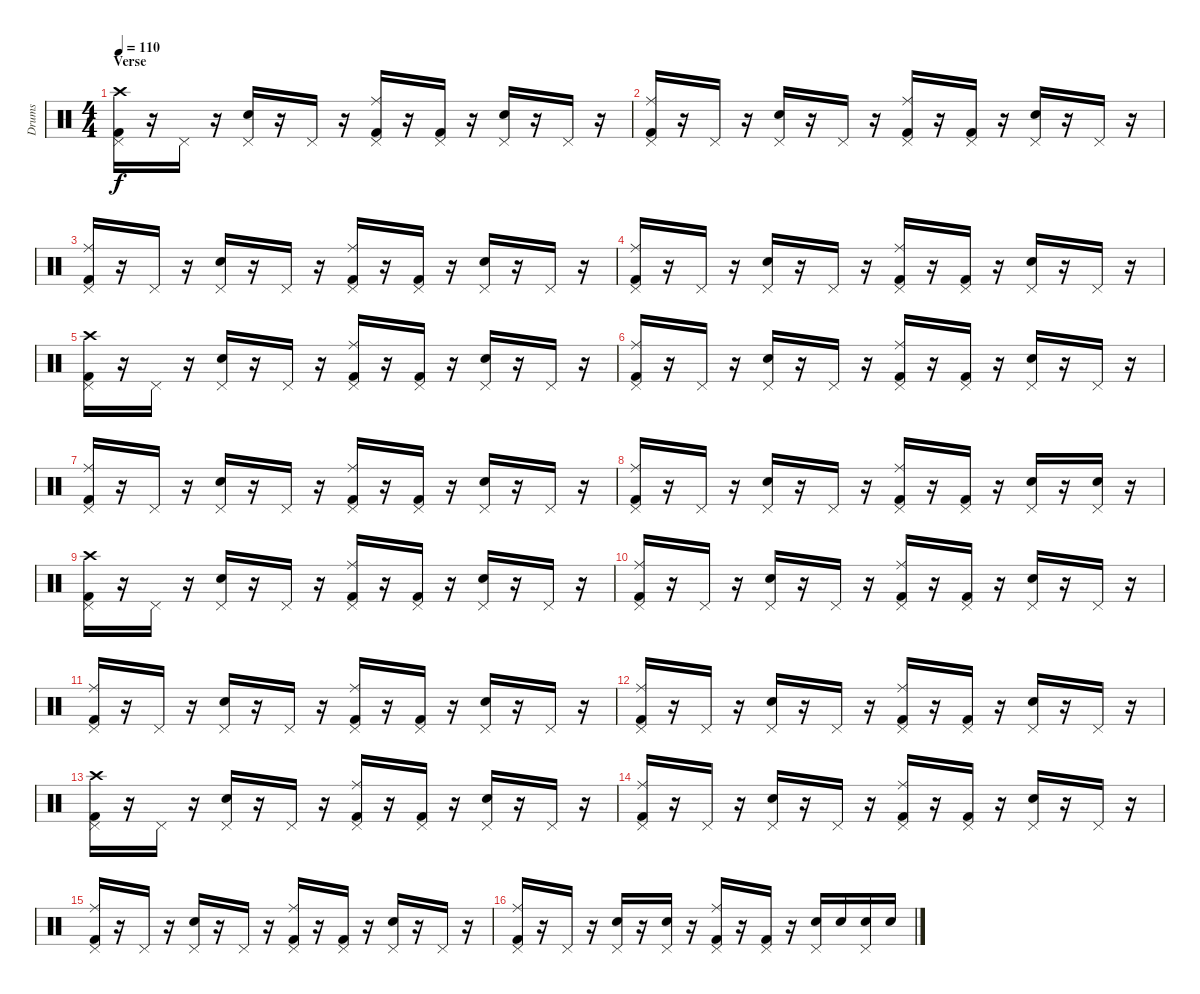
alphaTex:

\track ("Drums" "Drums") {instrument percussion}
\staff {score}
\articulation defaults
\ts (4 4)
\section ("" "Verse")
\tempo 110
\clef neutral
\ks c
("Crash high (hit)" "Kick (hit) 2" "Pedal Hi-Hat (hit)").16{dy f} r.16 "Pedal Hi-Hat (hit)".16 r.16 ("Snare (hit) 2" "Pedal Hi-Hat (hit)").16 r.16 "Pedal Hi-Hat (hit)".16 r.16 ("Ride (middle)" "Kick (hit) 2" "Pedal Hi-Hat (hit)").16 r.16 ("Kick (hit) 2" "Pedal Hi-Hat (hit)").16 r.16 ("Snare (hit) 2" "Pedal Hi-Hat (hit)").16 r.16 "Pedal Hi-Hat (hit)".16 r.16 |
("Ride (middle)" "Kick (hit) 2" "Pedal Hi-Hat (hit)").16 r.16 "Pedal Hi-Hat (hit)".16 r.16 ("Snare (hit) 2" "Pedal Hi-Hat (hit)").16 r.16 "Pedal Hi-Hat (hit)".16 r.16 ("Ride (middle)" "Kick (hit) 2" "Pedal Hi-Hat (hit)").16 r.16 ("Kick (hit) 2" "Pedal Hi-Hat (hit)").16 r.16 ("Snare (hit) 2" "Pedal Hi-Hat (hit)").16 r.16 "Pedal Hi-Hat (hit)".16 r.16 |
("Ride (middle)" "Kick (hit) 2" "Pedal Hi-Hat (hit)").16 r.16 "Pedal Hi-Hat (hit)".16 r.16 ("Snare (hit) 2" "Pedal Hi-Hat (hit)").16 r.16 "Pedal Hi-Hat (hit)".16 r.16 ("Ride (middle)" "Kick (hit) 2" "Pedal Hi-Hat (hit)").16 r.16 ("Kick (hit) 2" "Pedal Hi-Hat (hit)").16 r.16 ("Snare (hit) 2" "Pedal Hi-Hat (hit)").16 r.16 "Pedal Hi-Hat (hit)".16 r.16 |
("Ride (middle)" "Kick (hit) 2" "Pedal Hi-Hat (hit)").16 r.16 "Pedal Hi-Hat (hit)".16 r.16 ("Snare (hit) 2" "Pedal Hi-Hat (hit)").16 r.16 "Pedal Hi-Hat (hit)".16 r.16 ("Ride (middle)" "Kick (hit) 2" "Pedal Hi-Hat (hit)").16 r.16 ("Kick (hit) 2" "Pedal Hi-Hat (hit)").16 r.16 ("Snare (hit) 2" "Pedal Hi-Hat (hit)").16 r.16 "Pedal Hi-Hat (hit)".16 r.16 |
("Crash high (hit)" "Kick (hit) 2" "Pedal Hi-Hat (hit)").16 r.16 "Pedal Hi-Hat (hit)".16 r.16 ("Snare (hit) 2" "Pedal Hi-Hat (hit)").16 r.16 "Pedal Hi-Hat (hit)".16 r.16 ("Ride (middle)" "Kick (hit) 2" "Pedal Hi-Hat (hit)").16 r.16 ("Kick (hit) 2" "Pedal Hi-Hat (hit)").16 r.16 ("Snare (hit) 2" "Pedal Hi-Hat (hit)").16 r.16 "Pedal Hi-Hat (hit)".16 r.16 |
("Ride (middle)" "Kick (hit) 2" "Pedal Hi-Hat (hit)").16 r.16 "Pedal Hi-Hat (hit)".16 r.16 ("Snare (hit) 2" "Pedal Hi-Hat (hit)").16 r.16 "Pedal Hi-Hat (hit)".16 r.16 ("Ride (middle)" "Kick (hit) 2" "Pedal Hi-Hat (hit)").16 r.16 ("Kick (hit) 2" "Pedal Hi-Hat (hit)").16 r.16 ("Snare (hit) 2" "Pedal Hi-Hat (hit)").16 r.16 "Pedal Hi-Hat (hit)".16 r.16 |
("Ride (middle)" "Kick (hit) 2" "Pedal Hi-Hat (hit)").16 r.16 "Pedal Hi-Hat (hit)".16 r.16 ("Snare (hit) 2" "Pedal Hi-Hat (hit)").16 r.16 "Pedal Hi-Hat (hit)".16 r.16 ("Ride (middle)" "Kick (hit) 2" "Pedal Hi-Hat (hit)").16 r.16 ("Kick (hit) 2" "Pedal Hi-Hat (hit)").16 r.16 ("Snare (hit) 2" "Pedal Hi-Hat (hit)").16 r.16 "Pedal Hi-Hat (hit)".16 r.16 |
("Ride (middle)" "Kick (hit) 2" "Pedal Hi-Hat (hit)").16 r.16 "Pedal Hi-Hat (hit)".16 r.16 ("Snare (hit) 2" "Pedal Hi-Hat (hit)").16 r.16 "Pedal Hi-Hat (hit)".16 r.16 ("Ride (middle)" "Kick (hit) 2" "Pedal Hi-Hat (hit)").16 r.16 ("Kick (hit) 2" "Pedal Hi-Hat (hit)").16 r.16 ("Snare (hit) 2" "Pedal Hi-Hat (hit)").16 r.16 ("Snare (hit) 2" "Pedal Hi-Hat (hit)").16 r.16 |
("Crash high (hit)" "Kick (hit) 2" "Pedal Hi-Hat (hit)").16 r.16 "Pedal Hi-Hat (hit)".16 r.16 ("Snare (hit) 2" "Pedal Hi-Hat (hit)").16 r.16 "Pedal Hi-Hat (hit)".16 r.16 ("Ride (middle)" "Kick (hit) 2" "Pedal Hi-Hat (hit)").16 r.16 ("Kick (hit) 2" "Pedal Hi-Hat (hit)").16 r.16 ("Snare (hit) 2" "Pedal Hi-Hat (hit)").16 r.16 "Pedal Hi-Hat (hit)".16 r.16 |
("Ride (middle)" "Kick (hit) 2" "Pedal Hi-Hat (hit)").16 r.16 "Pedal Hi-Hat (hit)".16 r.16 ("Snare (hit) 2" "Pedal Hi-Hat (hit)").16 r.16 "Pedal Hi-Hat (hit)".16 r.16 ("Ride (middle)" "Kick (hit) 2" "Pedal Hi-Hat (hit)").16 r.16 ("Kick (hit) 2" "Pedal Hi-Hat (hit)").16 r.16 ("Snare (hit) 2" "Pedal Hi-Hat (hit)").16 r.16 "Pedal Hi-Hat (hit)".16 r.16 |
("Ride (middle)" "Kick (hit) 2" "Pedal Hi-Hat (hit)").16 r.16 "Pedal Hi-Hat (hit)".16 r.16 ("Snare (hit) 2" "Pedal Hi-Hat (hit)").16 r.16 "Pedal Hi-Hat (hit)".16 r.16 ("Ride (middle)" "Kick (hit) 2" "Pedal Hi-Hat (hit)").16 r.16 ("Kick (hit) 2" "Pedal Hi-Hat (hit)").16 r.16 ("Snare (hit) 2" "Pedal Hi-Hat (hit)").16 r.16 "Pedal Hi-Hat (hit)".16 r.16 |
("Ride (middle)" "Kick (hit) 2" "Pedal Hi-Hat (hit)").16 r.16 "Pedal Hi-Hat (hit)".16 r.16 ("Snare (hit) 2" "Pedal Hi-Hat (hit)").16 r.16 "Pedal Hi-Hat (hit)".16 r.16 ("Ride (middle)" "Kick (hit) 2" "Pedal Hi-Hat (hit)").16 r.16 ("Kick (hit) 2" "Pedal Hi-Hat (hit)").16 r.16 ("Snare (hit) 2" "Pedal Hi-Hat (hit)").16 r.16 "Pedal Hi-Hat (hit)".16 r.16 |
("Crash high (hit)" "Kick (hit) 2" "Pedal Hi-Hat (hit)").16 r.16 "Pedal Hi-Hat (hit)".16 r.16 ("Snare (hit) 2" "Pedal Hi-Hat (hit)").16 r.16 "Pedal Hi-Hat (hit)".16 r.16 ("Ride (middle)" "Kick (hit) 2" "Pedal Hi-Hat (hit)").16 r.16 ("Kick (hit) 2" "Pedal Hi-Hat (hit)").16 r.16 ("Snare (hit) 2" "Pedal Hi-Hat (hit)").16 r.16 "Pedal Hi-Hat (hit)".16 r.16 |
("Ride (middle)" "Kick (hit) 2" "Pedal Hi-Hat (hit)").16 r.16 "Pedal Hi-Hat (hit)".16 r.16 ("Snare (hit) 2" "Pedal Hi-Hat (hit)").16 r.16 "Pedal Hi-Hat (hit)".16 r.16 ("Ride (middle)" "Kick (hit) 2" "Pedal Hi-Hat (hit)").16 r.16 ("Kick (hit) 2" "Pedal Hi-Hat (hit)").16 r.16 ("Snare (hit) 2" "Pedal Hi-Hat (hit)").16 r.16 "Pedal Hi-Hat (hit)".16 r.16 |
("Ride (middle)" "Kick (hit) 2" "Pedal Hi-Hat (hit)").16 r.16 "Pedal Hi-Hat (hit)".16 r.16 ("Snare (hit) 2" "Pedal Hi-Hat (hit)").16 r.16 "Pedal Hi-Hat (hit)".16 r.16 ("Ride (middle)" "Kick (hit) 2" "Pedal Hi-Hat (hit)").16 r.16 ("Kick (hit) 2" "Pedal Hi-Hat (hit)").16 r.16 ("Snare (hit) 2" "Pedal Hi-Hat (hit)").16 r.16 "Pedal Hi-Hat (hit)".16 r.16 |
("Ride (middle)" "Kick (hit) 2" "Pedal Hi-Hat (hit)").16 r.16 "Pedal Hi-Hat (hit)".16 r.16 ("Snare (hit) 2" "Pedal Hi-Hat (hit)").16 r.16 ("Snare (hit) 2" "Pedal Hi-Hat (hit)").16 r.16 ("Ride (middle)" "Kick (hit) 2" "Pedal Hi-Hat (hit)").16 r.16 ("Kick (hit) 2" "Pedal Hi-Hat (hit)").16 r.16 ("Snare (hit) 2" "Pedal Hi-Hat (hit)").16 "Snare (hit) 2".16 ("Snare (hit) 2" "Pedal Hi-Hat (hit)").16 "Snare (hit) 2".16
